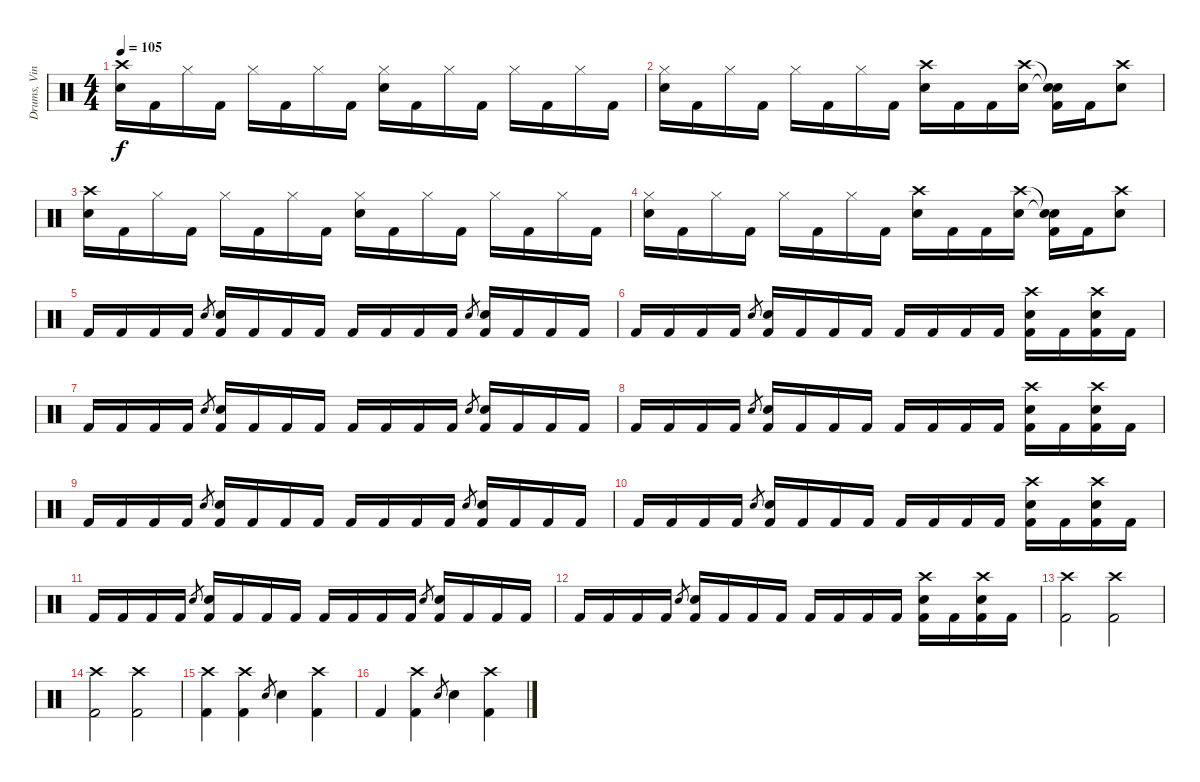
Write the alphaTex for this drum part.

\track ("Drums, Vinnie" "Drums, Vin") {instrument percussion}
\staff {score}
\articulation defaults
\ts (4 4)
\tempo 105
\clef neutral
\ks c
("Crash high (hit)" "Electric Snare (hit)").16{dy f} "Kick (hit) 2".16 "Hi-Hat (closed)".16 "Kick (hit) 2".16 "Hi-Hat (closed)".16 "Kick (hit) 2".16 "Hi-Hat (closed)".16 "Kick (hit) 2".16 ("Hi-Hat (closed)" "Electric Snare (hit)").16 "Kick (hit) 2".16 "Hi-Hat (closed)".16 "Kick (hit) 2".16 "Hi-Hat (closed)".16 "Kick (hit) 2".16 "Hi-Hat (closed)".16 "Kick (hit) 2".16 |
("Hi-Hat (closed)" "Electric Snare (hit)").16 "Kick (hit) 2".16 "Hi-Hat (closed)".16 "Kick (hit) 2".16 "Hi-Hat (closed)".16 "Kick (hit) 2".16 "Hi-Hat (closed)".16 "Kick (hit) 2".16 ("Crash high (hit)" "Electric Snare (hit)").16 "Kick (hit) 2".16 "Kick (hit) 2".16 ("Crash high (hit)" "Electric Snare (hit)").16 ("Snare (hit)"{t} "Snare (hit)"{t} "Kick (hit) 2").16 "Kick (hit) 2".16 ("Crash high (hit)" "Electric Snare (hit)").8 |
("Crash high (hit)" "Electric Snare (hit)").16 "Kick (hit) 2".16 "Hi-Hat (closed)".16 "Kick (hit) 2".16 "Hi-Hat (closed)".16 "Kick (hit) 2".16 "Hi-Hat (closed)".16 "Kick (hit) 2".16 ("Hi-Hat (closed)" "Electric Snare (hit)").16 "Kick (hit) 2".16 "Hi-Hat (closed)".16 "Kick (hit) 2".16 "Hi-Hat (closed)".16 "Kick (hit) 2".16 "Hi-Hat (closed)".16 "Kick (hit) 2".16 |
("Hi-Hat (closed)" "Electric Snare (hit)").16 "Kick (hit) 2".16 "Hi-Hat (closed)".16 "Kick (hit) 2".16 "Hi-Hat (closed)".16 "Kick (hit) 2".16 "Hi-Hat (closed)".16 "Kick (hit) 2".16 ("Crash high (hit)" "Electric Snare (hit)").16 "Kick (hit) 2".16 "Kick (hit) 2".16 ("Crash high (hit)" "Electric Snare (hit)").16 ("Snare (hit)"{t} "Snare (hit)"{t} "Kick (hit) 2").16 "Kick (hit) 2".16 ("Crash high (hit)" "Electric Snare (hit)").8 |
"Kick (hit) 2".16 "Kick (hit) 2".16 "Kick (hit) 2".16 "Kick (hit) 2".16 "Electric Snare (hit)".8{gr} ("Electric Snare (hit)" "Kick (hit) 2").16 "Kick (hit) 2".16 "Kick (hit) 2".16 "Kick (hit) 2".16 "Kick (hit) 2".16 "Kick (hit) 2".16 "Kick (hit) 2".16 "Kick (hit) 2".16 "Electric Snare (hit)".8{gr} ("Electric Snare (hit)" "Kick (hit) 2").16 "Kick (hit) 2".16 "Kick (hit) 2".16 "Kick (hit) 2".16 |
"Kick (hit) 2".16 "Kick (hit) 2".16 "Kick (hit) 2".16 "Kick (hit) 2".16 "Electric Snare (hit)".8{gr} ("Electric Snare (hit)" "Kick (hit) 2").16 "Kick (hit) 2".16 "Kick (hit) 2".16 "Kick (hit) 2".16 "Kick (hit) 2".16 "Kick (hit) 2".16 "Kick (hit) 2".16 "Kick (hit) 2".16 ("Crash high (hit)" "Electric Snare (hit)" "Kick (hit) 2").16 "Kick (hit) 2".16 ("Crash high (hit)" "Electric Snare (hit)" "Kick (hit) 2").16 "Kick (hit) 2".16 |
"Kick (hit) 2".16 "Kick (hit) 2".16 "Kick (hit) 2".16 "Kick (hit) 2".16 "Electric Snare (hit)".8{gr} ("Electric Snare (hit)" "Kick (hit) 2").16 "Kick (hit) 2".16 "Kick (hit) 2".16 "Kick (hit) 2".16 "Kick (hit) 2".16 "Kick (hit) 2".16 "Kick (hit) 2".16 "Kick (hit) 2".16 "Electric Snare (hit)".8{gr} ("Electric Snare (hit)" "Kick (hit) 2").16 "Kick (hit) 2".16 "Kick (hit) 2".16 "Kick (hit) 2".16 |
"Kick (hit) 2".16 "Kick (hit) 2".16 "Kick (hit) 2".16 "Kick (hit) 2".16 "Electric Snare (hit)".8{gr} ("Electric Snare (hit)" "Kick (hit) 2").16 "Kick (hit) 2".16 "Kick (hit) 2".16 "Kick (hit) 2".16 "Kick (hit) 2".16 "Kick (hit) 2".16 "Kick (hit) 2".16 "Kick (hit) 2".16 ("Crash high (hit)" "Electric Snare (hit)" "Kick (hit) 2").16 "Kick (hit) 2".16 ("Crash high (hit)" "Electric Snare (hit)" "Kick (hit) 2").16 "Kick (hit) 2".16 |
"Kick (hit) 2".16 "Kick (hit) 2".16 "Kick (hit) 2".16 "Kick (hit) 2".16 "Electric Snare (hit)".8{gr} ("Electric Snare (hit)" "Kick (hit) 2").16 "Kick (hit) 2".16 "Kick (hit) 2".16 "Kick (hit) 2".16 "Kick (hit) 2".16 "Kick (hit) 2".16 "Kick (hit) 2".16 "Kick (hit) 2".16 "Electric Snare (hit)".8{gr} ("Electric Snare (hit)" "Kick (hit) 2").16 "Kick (hit) 2".16 "Kick (hit) 2".16 "Kick (hit) 2".16 |
"Kick (hit) 2".16 "Kick (hit) 2".16 "Kick (hit) 2".16 "Kick (hit) 2".16 "Electric Snare (hit)".8{gr} ("Electric Snare (hit)" "Kick (hit) 2").16 "Kick (hit) 2".16 "Kick (hit) 2".16 "Kick (hit) 2".16 "Kick (hit) 2".16 "Kick (hit) 2".16 "Kick (hit) 2".16 "Kick (hit) 2".16 ("Crash high (hit)" "Electric Snare (hit)" "Kick (hit) 2").16 "Kick (hit) 2".16 ("Crash high (hit)" "Electric Snare (hit)" "Kick (hit) 2").16 "Kick (hit) 2".16 |
"Kick (hit) 2".16 "Kick (hit) 2".16 "Kick (hit) 2".16 "Kick (hit) 2".16 "Electric Snare (hit)".8{gr} ("Electric Snare (hit)" "Kick (hit) 2").16 "Kick (hit) 2".16 "Kick (hit) 2".16 "Kick (hit) 2".16 "Kick (hit) 2".16 "Kick (hit) 2".16 "Kick (hit) 2".16 "Kick (hit) 2".16 "Electric Snare (hit)".8{gr} ("Electric Snare (hit)" "Kick (hit) 2").16 "Kick (hit) 2".16 "Kick (hit) 2".16 "Kick (hit) 2".16 |
"Kick (hit) 2".16 "Kick (hit) 2".16 "Kick (hit) 2".16 "Kick (hit) 2".16 "Electric Snare (hit)".8{gr} ("Electric Snare (hit)" "Kick (hit) 2").16 "Kick (hit) 2".16 "Kick (hit) 2".16 "Kick (hit) 2".16 "Kick (hit) 2".16 "Kick (hit) 2".16 "Kick (hit) 2".16 "Kick (hit) 2".16 ("Crash high (hit)" "Electric Snare (hit)" "Kick (hit) 2").16 "Kick (hit) 2".16 ("Crash high (hit)" "Electric Snare (hit)" "Kick (hit) 2").16 "Kick (hit) 2".16 |
("Crash high (hit)" "Kick (hit) 2").2 ("Crash high (hit)" "Kick (hit) 2").2 |
("Crash high (hit)" "Kick (hit) 2").2 ("Crash high (hit)" "Kick (hit) 2").2 |
("Crash high (hit)" "Kick (hit) 2").4 ("Crash high (hit)" "Kick (hit) 2").4 "Electric Snare (hit)".8{gr} "Electric Snare (hit)".4 ("Crash high (hit)" "Kick (hit) 2").4 |
"Kick (hit) 2".4 ("Crash high (hit)" "Kick (hit) 2").4 "Electric Snare (hit)".8{gr} "Electric Snare (hit)".4 ("Crash high (hit)" "Kick (hit) 2").4
